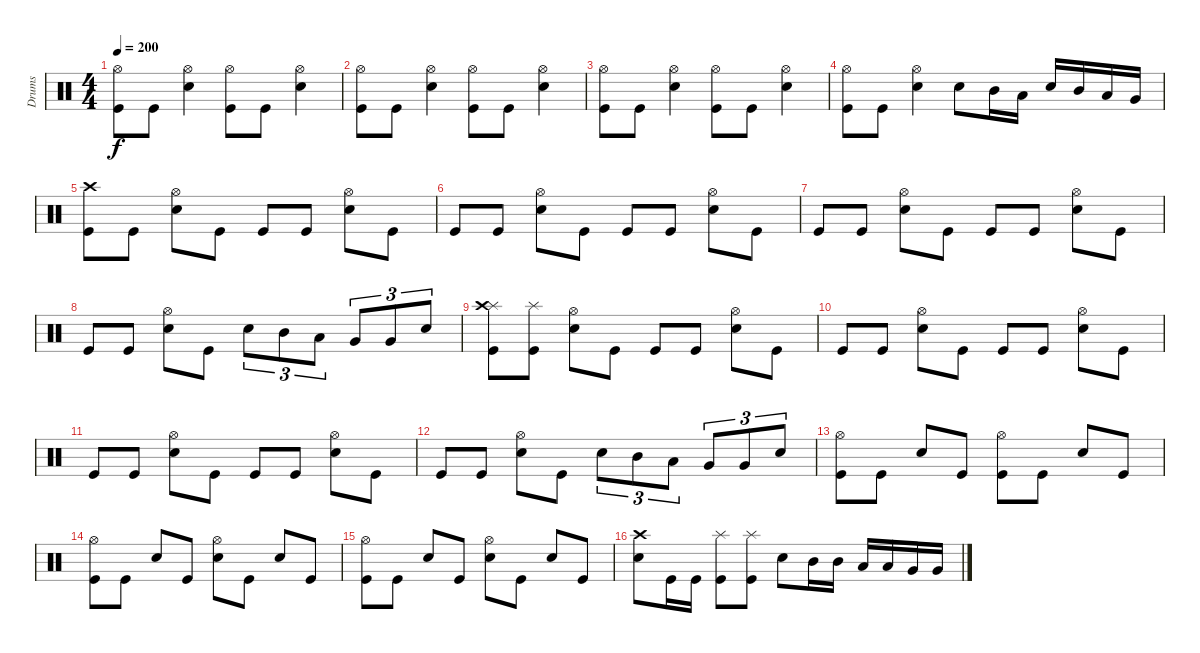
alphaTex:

\track ("Drums" "Drums") {instrument percussion}
\staff {score}
\articulation defaults
\ts (4 4)
\tempo 200
\clef neutral
\ks c
("Kick (hit)" "Hi-Hat (open)").8{dy f} "Kick (hit)".8 ("Electric Snare (hit)" "Hi-Hat (open)").4 ("Kick (hit)" "Hi-Hat (open)").8 "Kick (hit)".8 ("Electric Snare (hit)" "Hi-Hat (open)").4 |
("Kick (hit)" "Hi-Hat (open)").8 "Kick (hit)".8 ("Electric Snare (hit)" "Hi-Hat (open)").4 ("Kick (hit)" "Hi-Hat (open)").8 "Kick (hit)".8 ("Electric Snare (hit)" "Hi-Hat (open)").4 |
("Kick (hit)" "Hi-Hat (open)").8 "Kick (hit)".8 ("Electric Snare (hit)" "Hi-Hat (open)").4 ("Kick (hit)" "Hi-Hat (open)").8 "Kick (hit)".8 ("Electric Snare (hit)" "Hi-Hat (open)").4 |
("Kick (hit)" "Hi-Hat (open)").8 "Kick (hit)".8 ("Hi-Hat (open)" "Electric Snare (hit)").4 "Electric Snare (hit)".8 "Mid Tom (hit)".16 "Low Tom (hit)".16 "Electric Snare (hit)".16 "Mid Tom (hit)".16 "Low Tom (hit)".16 "Very Low Tom (hit)".16 |
("Crash high (hit)" "Kick (hit)").8 "Kick (hit)".8 ("Hi-Hat (open)" "Electric Snare (hit)").8 "Kick (hit)".8 "Kick (hit)".8 "Kick (hit)".8 ("Hi-Hat (open)" "Electric Snare (hit)").8 "Kick (hit)".8 |
"Kick (hit)".8 "Kick (hit)".8 ("Hi-Hat (open)" "Electric Snare (hit)").8 "Kick (hit)".8 "Kick (hit)".8 "Kick (hit)".8 ("Hi-Hat (open)" "Electric Snare (hit)").8 "Kick (hit)".8 |
"Kick (hit)".8 "Kick (hit)".8 ("Hi-Hat (open)" "Electric Snare (hit)").8 "Kick (hit)".8 "Kick (hit)".8 "Kick (hit)".8 ("Hi-Hat (open)" "Electric Snare (hit)").8 "Kick (hit)".8 |
"Kick (hit)".8 "Kick (hit)".8 ("Hi-Hat (open)" "Electric Snare (hit)").8 "Kick (hit)".8 "Electric Snare (hit)".8{tu (3 2)} "Mid Tom (hit)".8{tu (3 2)} "Low Tom (hit)".8{tu (3 2)} "Very Low Tom (hit)".8{tu (3 2)} "Very Low Tom (hit)".8{tu (3 2)} "Electric Snare (hit)".8{tu (3 2)} |
("Splash (hit)" "Kick (hit)" "Crash high (hit)").8 ("Splash (hit)" "Kick (hit)").8 ("Hi-Hat (open)" "Electric Snare (hit)").8 "Kick (hit)".8 "Kick (hit)".8 "Kick (hit)".8 ("Hi-Hat (open)" "Electric Snare (hit)").8 "Kick (hit)".8 |
"Kick (hit)".8 "Kick (hit)".8 ("Hi-Hat (open)" "Electric Snare (hit)").8 "Kick (hit)".8 "Kick (hit)".8 "Kick (hit)".8 ("Hi-Hat (open)" "Electric Snare (hit)").8 "Kick (hit)".8 |
"Kick (hit)".8 "Kick (hit)".8 ("Hi-Hat (open)" "Electric Snare (hit)").8 "Kick (hit)".8 "Kick (hit)".8 "Kick (hit)".8 ("Hi-Hat (open)" "Electric Snare (hit)").8 "Kick (hit)".8 |
"Kick (hit)".8 "Kick (hit)".8 ("Hi-Hat (open)" "Electric Snare (hit)").8 "Kick (hit)".8 "Electric Snare (hit)".8{tu (3 2)} "Mid Tom (hit)".8{tu (3 2)} "Low Tom (hit)".8{tu (3 2)} "Very Low Tom (hit)".8{tu (3 2)} "Very Low Tom (hit)".8{tu (3 2)} "Electric Snare (hit)".8{tu (3 2)} |
("Hi-Hat (open)" "Kick (hit)").8 "Kick (hit)".8 "Electric Snare (hit)".8 "Kick (hit)".8 ("Hi-Hat (open)" "Kick (hit)").8 "Kick (hit)".8 "Electric Snare (hit)".8 "Kick (hit)".8 |
("Hi-Hat (open)" "Kick (hit)").8 "Kick (hit)".8 "Electric Snare (hit)".8 "Kick (hit)".8 ("Hi-Hat (open)" "Electric Snare (hit)").8 "Kick (hit)".8 "Electric Snare (hit)".8 "Kick (hit)".8 |
("Hi-Hat (open)" "Kick (hit)").8 "Kick (hit)".8 "Electric Snare (hit)".8 "Kick (hit)".8 ("Electric Snare (hit)" "Hi-Hat (open)").8 "Kick (hit)".8 "Electric Snare (hit)".8 "Kick (hit)".8 |
("Crash high (hit)" "Electric Snare (hit)").8 "Kick (hit)".16 "Kick (hit)".16 ("Splash (hit)" "Kick (hit)").8 ("Splash (hit)" "Kick (hit)").8 "Electric Snare (hit)".8 "Mid Tom (hit)".16 "Mid Tom (hit)".16 "Low Tom (hit)".16 "Low Tom (hit)".16 "Very Low Tom (hit)".16 "Very Low Tom (hit)".16
